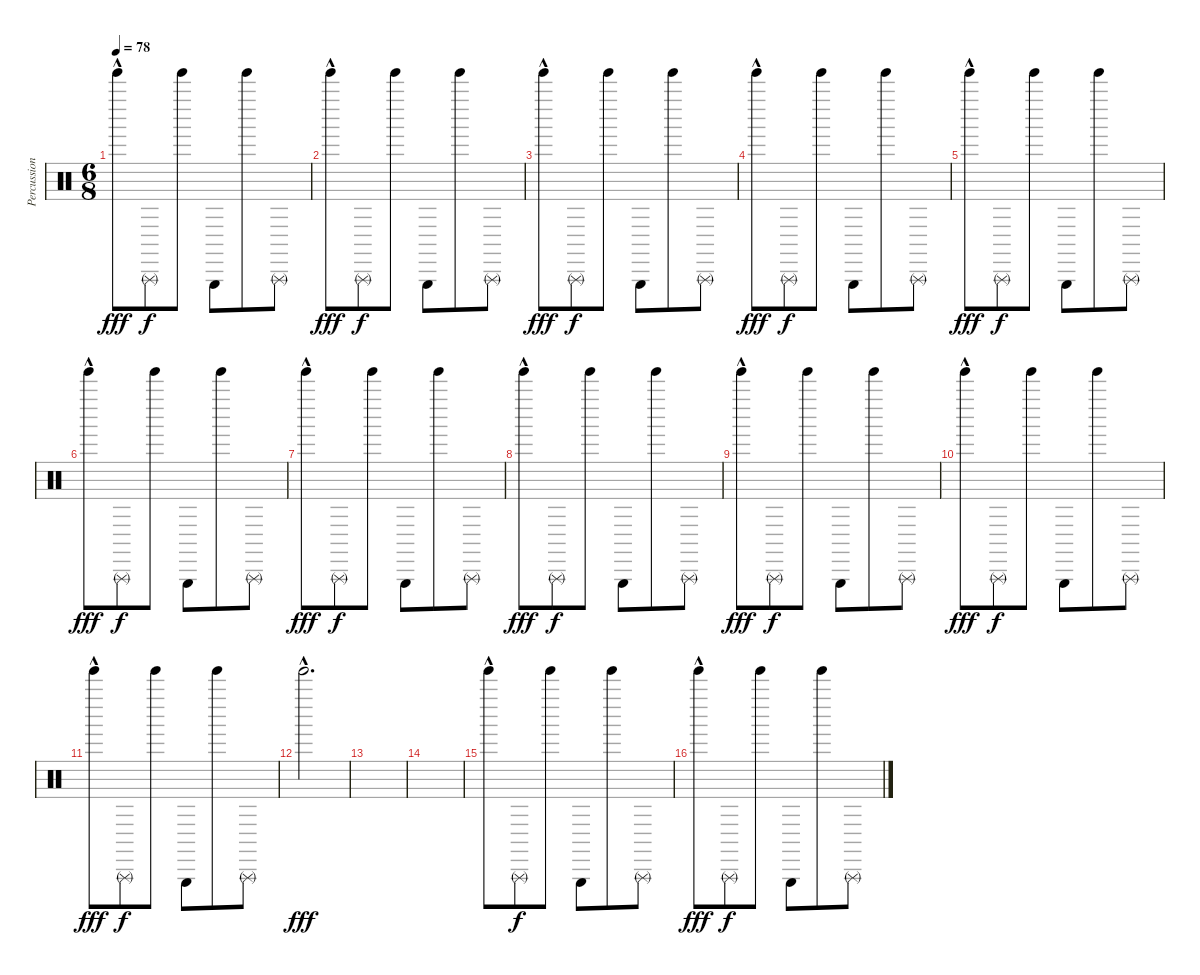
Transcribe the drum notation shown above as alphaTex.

\track ("Percussion" "Percussion") {instrument percussion}
\staff {score}
\articulation defaults
\ts (6 8)
\tempo 78
\clef neutral
\ks c "Tinkle Bell (hit)"{hac}.8{dy fff} "Triangle (rnute)".8{dy f} "Tinkle Bell (hit)".8 "Triangle (hit)".8 "Tinkle Bell (hit)".8 "Triangle (rnute)".8
|
"Tinkle Bell (hit)"{hac}.8{dy fff} "Triangle (rnute)".8{dy f} "Tinkle Bell (hit)".8 "Triangle (hit)".8 "Tinkle Bell (hit)".8 "Triangle (rnute)".8 |
"Tinkle Bell (hit)"{hac}.8{dy fff} "Triangle (rnute)".8{dy f} "Tinkle Bell (hit)".8 "Triangle (hit)".8 "Tinkle Bell (hit)".8 "Triangle (rnute)".8 |
"Tinkle Bell (hit)"{hac}.8{dy fff} "Triangle (rnute)".8{dy f} "Tinkle Bell (hit)".8 "Triangle (hit)".8 "Tinkle Bell (hit)".8 "Triangle (rnute)".8 |
"Tinkle Bell (hit)"{hac}.8{dy fff} "Triangle (rnute)".8{dy f} "Tinkle Bell (hit)".8 "Triangle (hit)".8 "Tinkle Bell (hit)".8 "Triangle (rnute)".8 |
"Tinkle Bell (hit)"{hac}.8{dy fff} "Triangle (rnute)".8{dy f} "Tinkle Bell (hit)".8 "Triangle (hit)".8 "Tinkle Bell (hit)".8 "Triangle (rnute)".8 |
"Tinkle Bell (hit)"{hac}.8{dy fff} "Triangle (rnute)".8{dy f} "Tinkle Bell (hit)".8 "Triangle (hit)".8 "Tinkle Bell (hit)".8 "Triangle (rnute)".8 |
"Tinkle Bell (hit)"{hac}.8{dy fff} "Triangle (rnute)".8{dy f} "Tinkle Bell (hit)".8 "Triangle (hit)".8 "Tinkle Bell (hit)".8 "Triangle (rnute)".8 |
"Tinkle Bell (hit)"{hac}.8{dy fff} "Triangle (rnute)".8{dy f} "Tinkle Bell (hit)".8 "Triangle (hit)".8 "Tinkle Bell (hit)".8 "Triangle (rnute)".8 |
"Tinkle Bell (hit)"{hac}.8{dy fff} "Triangle (rnute)".8{dy f} "Tinkle Bell (hit)".8 "Triangle (hit)".8 "Tinkle Bell (hit)".8 "Triangle (rnute)".8 |
"Tinkle Bell (hit)"{hac}.8{dy fff} "Triangle (rnute)".8{dy f} "Tinkle Bell (hit)".8 "Triangle (hit)".8 "Tinkle Bell (hit)".8 "Triangle (rnute)".8 |
"Tinkle Bell (hit)"{hac}.2{d dy fff} |
|
|
"Tinkle Bell (hit)"{hac}.8 "Triangle (rnute)".8{dy f} "Tinkle Bell (hit)".8 "Triangle (hit)".8 "Tinkle Bell (hit)".8 "Triangle (rnute)".8 |
"Tinkle Bell (hit)"{hac}.8{dy fff} "Triangle (rnute)".8{dy f} "Tinkle Bell (hit)".8 "Triangle (hit)".8 "Tinkle Bell (hit)".8 "Triangle (rnute)".8
